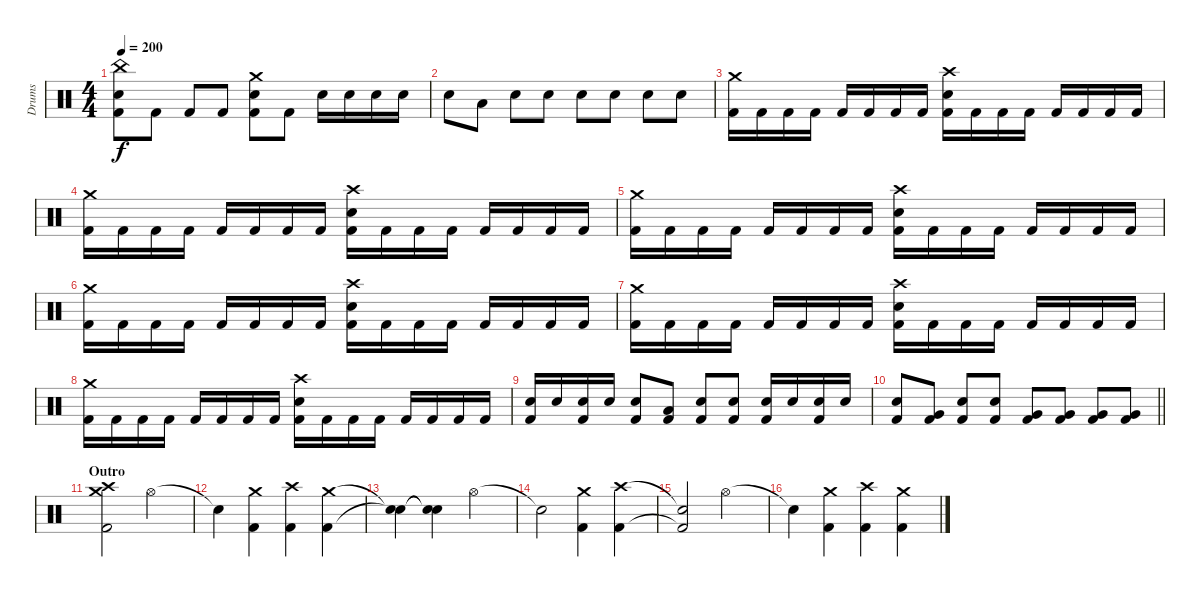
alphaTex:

\track ("Drums" "Drums") {instrument percussion}
\staff {score}
\articulation defaults
\ts (4 4)
\tempo 200
\clef neutral
\ks c
("China (hit)" "Electric Snare (hit)" "Kick (hit) 2").8{dy f} "Kick (hit) 2".8 "Kick (hit) 2".8 "Kick (hit) 2".8 ("Crash medium (hit)" "Electric Snare (hit)" "Kick (hit) 2").8 "Kick (hit) 2".8 "Electric Snare (hit)".16 "Electric Snare (hit)".16 "Electric Snare (hit)".16 "Electric Snare (hit)".16 |
"Electric Snare (hit)".8 "Low Tom (hit)".8 "Electric Snare (hit)".8 "Electric Snare (hit)".8 "Electric Snare (hit)".8 "Electric Snare (hit)".8 "Electric Snare (hit)".8 "Electric Snare (hit)".8 |
("Crash medium (hit)" "Kick (hit) 2").16 "Kick (hit) 2".16 "Kick (hit) 2".16 "Kick (hit) 2".16 "Kick (hit) 2".16 "Kick (hit) 2".16 "Kick (hit) 2".16 "Kick (hit) 2".16 ("Crash high (hit)" "Electric Snare (hit)" "Kick (hit) 2").16 "Kick (hit) 2".16 "Kick (hit) 2".16 "Kick (hit) 2".16 "Kick (hit) 2".16 "Kick (hit) 2".16 "Kick (hit) 2".16 "Kick (hit) 2".16 |
("Crash medium (hit)" "Kick (hit) 2").16 "Kick (hit) 2".16 "Kick (hit) 2".16 "Kick (hit) 2".16 "Kick (hit) 2".16 "Kick (hit) 2".16 "Kick (hit) 2".16 "Kick (hit) 2".16 ("Crash high (hit)" "Electric Snare (hit)" "Kick (hit) 2").16 "Kick (hit) 2".16 "Kick (hit) 2".16 "Kick (hit) 2".16 "Kick (hit) 2".16 "Kick (hit) 2".16 "Kick (hit) 2".16 "Kick (hit) 2".16 |
("Crash medium (hit)" "Kick (hit) 2").16 "Kick (hit) 2".16 "Kick (hit) 2".16 "Kick (hit) 2".16 "Kick (hit) 2".16 "Kick (hit) 2".16 "Kick (hit) 2".16 "Kick (hit) 2".16 ("Crash high (hit)" "Electric Snare (hit)" "Kick (hit) 2").16 "Kick (hit) 2".16 "Kick (hit) 2".16 "Kick (hit) 2".16 "Kick (hit) 2".16 "Kick (hit) 2".16 "Kick (hit) 2".16 "Kick (hit) 2".16 |
("Crash medium (hit)" "Kick (hit) 2").16 "Kick (hit) 2".16 "Kick (hit) 2".16 "Kick (hit) 2".16 "Kick (hit) 2".16 "Kick (hit) 2".16 "Kick (hit) 2".16 "Kick (hit) 2".16 ("Crash high (hit)" "Electric Snare (hit)" "Kick (hit) 2").16 "Kick (hit) 2".16 "Kick (hit) 2".16 "Kick (hit) 2".16 "Kick (hit) 2".16 "Kick (hit) 2".16 "Kick (hit) 2".16 "Kick (hit) 2".16 |
("Crash medium (hit)" "Kick (hit) 2").16 "Kick (hit) 2".16 "Kick (hit) 2".16 "Kick (hit) 2".16 "Kick (hit) 2".16 "Kick (hit) 2".16 "Kick (hit) 2".16 "Kick (hit) 2".16 ("Crash high (hit)" "Electric Snare (hit)" "Kick (hit) 2").16 "Kick (hit) 2".16 "Kick (hit) 2".16 "Kick (hit) 2".16 "Kick (hit) 2".16 "Kick (hit) 2".16 "Kick (hit) 2".16 "Kick (hit) 2".16 |
("Crash medium (hit)" "Kick (hit) 2").16 "Kick (hit) 2".16 "Kick (hit) 2".16 "Kick (hit) 2".16 "Kick (hit) 2".16 "Kick (hit) 2".16 "Kick (hit) 2".16 "Kick (hit) 2".16 ("Crash high (hit)" "Electric Snare (hit)" "Kick (hit) 2").16 "Kick (hit) 2".16 "Kick (hit) 2".16 "Kick (hit) 2".16 "Kick (hit) 2".16 "Kick (hit) 2".16 "Kick (hit) 2".16 "Kick (hit) 2".16 |
("Electric Snare (hit)" "Kick (hit) 2").16 "Electric Snare (hit)".16 ("Electric Snare (hit)" "Kick (hit) 2").16 "Electric Snare (hit)".16 ("Electric Snare (hit)" "Kick (hit) 2").8 ("Low Tom (hit)" "Kick (hit) 2").8 ("Electric Snare (hit)" "Kick (hit) 2").8 ("Electric Snare (hit)" "Kick (hit) 2").8 ("Electric Snare (hit)" "Kick (hit) 2").16 "Electric Snare (hit)".16 ("Electric Snare (hit)" "Kick (hit) 2").16 "Electric Snare (hit)".16 |
\barLineRight lightlight
("Electric Snare (hit)" "Kick (hit) 2").8 ("Very Low Tom (hit)" "Kick (hit) 2").8 ("Electric Snare (hit)" "Kick (hit) 2").8 ("Electric Snare (hit)" "Kick (hit) 2").8 ("Very Low Tom (hit)" "Kick (hit) 2").8 ("Very Low Tom (hit)" "Kick (hit) 2").8 ("Very Low Tom (hit)" "Kick (hit) 2").8 ("Very Low Tom (hit)" "Kick (hit) 2").8 |
\section ("" "Outro")
("Crash medium (hit)" "Crash high (hit)" "Kick (hit) 2").2 "Hi-Hat (open)".2 |
"Snare (hit)"{t}.4 ("Crash medium (hit)" "Kick (hit) 2").4 ("Crash high (hit)" "Kick (hit) 2").4 ("Crash medium (hit)" "Kick (hit) 2").4 |
("Snare (hit)"{t} "Snare (hit)"{t}).4 ("Snare (hit)"{t} "Snare (hit)"{t}).4 "Hi-Hat (open)".2 |
"Snare (hit)"{t}.2 ("Crash medium (hit)" "Kick (hit) 2").4 ("Crash high (hit)" "Kick (hit) 2").4 |
("Snare (hit)"{t} "Kick (hit) 2"{t}).2 "Hi-Hat (open)".2 |
"Snare (hit)"{t}.4 ("Crash medium (hit)" "Kick (hit) 2").4 ("Crash high (hit)" "Kick (hit) 2").4 ("Crash medium (hit)" "Kick (hit) 2").4
